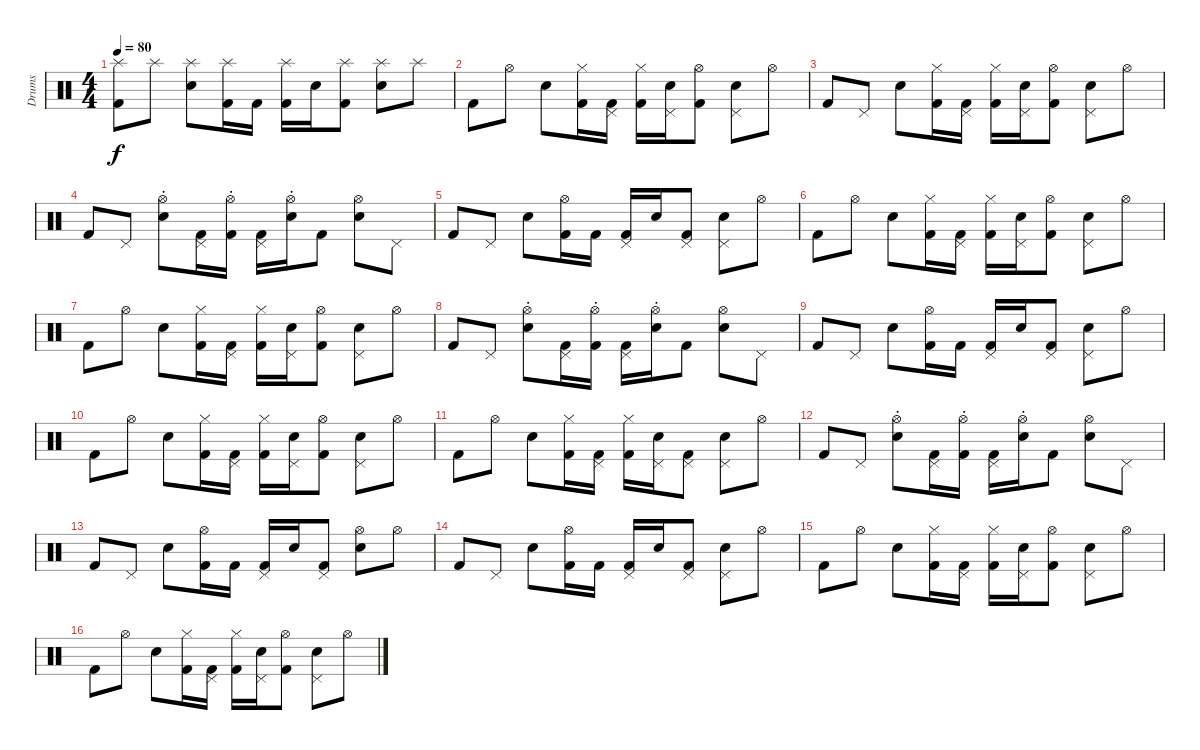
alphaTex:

\track ("Drums" "Drums") {instrument percussion}
\staff {score}
\articulation defaults
\ts (4 4)
\tempo 80
\clef neutral
\ks c
("Splash (hit)" "Kick (hit) 2").8{dy f} "Splash (hit)".8 ("Splash (hit)" "Snare (hit) 2").8 ("Splash (hit)" "Kick (hit) 2").16 "Kick (hit) 2".16 ("Splash (hit)" "Kick (hit) 2").16 "Snare (hit) 2".16 ("Splash (hit)" "Kick (hit) 2").8 ("Splash (hit)" "Snare (hit) 2").8 "Splash (hit)".8 |
"Kick (hit) 2".8 "Hi-Hat (open)".8 "Snare (hit) 2".8 ("Hi-Hat (closed)" "Kick (hit) 2").16 ("Pedal Hi-Hat (hit)" "Kick (hit) 2").16 ("Hi-Hat (closed)" "Kick (hit) 2").16 ("Pedal Hi-Hat (hit)" "Snare (hit) 2").16 ("Hi-Hat (open)" "Kick (hit) 2").8 ("Pedal Hi-Hat (hit)" "Snare (hit) 2").8 "Hi-Hat (open)".8 |
"Kick (hit) 2".8 "Pedal Hi-Hat (hit)".8 "Snare (hit) 2".8 ("Hi-Hat (closed)" "Kick (hit) 2").16 ("Pedal Hi-Hat (hit)" "Kick (hit) 2").16 ("Hi-Hat (closed)" "Kick (hit) 2").16 ("Pedal Hi-Hat (hit)" "Snare (hit) 2").16 ("Hi-Hat (open)" "Kick (hit) 2").8 ("Pedal Hi-Hat (hit)" "Snare (hit) 2").8 "Hi-Hat (open)".8 |
"Kick (hit) 2".8 "Pedal Hi-Hat (hit)".8 ("Hi-Hat (open)"{st} "Snare (hit) 2").8 ("Pedal Hi-Hat (hit)" "Kick (hit) 2").16 ("Hi-Hat (open)"{st} "Kick (hit) 2").16 ("Pedal Hi-Hat (hit)" "Kick (hit) 2").16 ("Hi-Hat (open)"{st} "Snare (hit) 2").16 "Kick (hit) 2".8 ("Hi-Hat (open)" "Snare (hit) 2").8 "Pedal Hi-Hat (hit)".8 |
"Kick (hit) 2".8 "Pedal Hi-Hat (hit)".8 "Snare (hit) 2".8 ("Hi-Hat (open)" "Kick (hit) 2").16 "Kick (hit) 2".16 ("Pedal Hi-Hat (hit)" "Kick (hit) 2").16 "Snare (hit) 2".16 ("Pedal Hi-Hat (hit)" "Kick (hit) 2").8 ("Pedal Hi-Hat (hit)" "Snare (hit) 2").8 "Hi-Hat (open)".8 |
"Kick (hit) 2".8 "Hi-Hat (open)".8 "Snare (hit) 2".8 ("Hi-Hat (closed)" "Kick (hit) 2").16 ("Pedal Hi-Hat (hit)" "Kick (hit) 2").16 ("Hi-Hat (closed)" "Kick (hit) 2").16 ("Pedal Hi-Hat (hit)" "Snare (hit) 2").16 ("Hi-Hat (open)" "Kick (hit) 2").8 ("Pedal Hi-Hat (hit)" "Snare (hit) 2").8 "Hi-Hat (open)".8 |
"Kick (hit) 2".8 "Hi-Hat (open)".8 "Snare (hit) 2".8 ("Hi-Hat (closed)" "Kick (hit) 2").16 ("Pedal Hi-Hat (hit)" "Kick (hit) 2").16 ("Hi-Hat (closed)" "Kick (hit) 2").16 ("Pedal Hi-Hat (hit)" "Snare (hit) 2").16 ("Hi-Hat (open)" "Kick (hit) 2").8 ("Pedal Hi-Hat (hit)" "Snare (hit) 2").8 "Hi-Hat (open)".8 |
"Kick (hit) 2".8 "Pedal Hi-Hat (hit)".8 ("Hi-Hat (open)"{st} "Snare (hit) 2").8 ("Pedal Hi-Hat (hit)" "Kick (hit) 2").16 ("Hi-Hat (open)"{st} "Kick (hit) 2").16 ("Pedal Hi-Hat (hit)" "Kick (hit) 2").16 ("Hi-Hat (open)"{st} "Snare (hit) 2").16 "Kick (hit) 2".8 ("Hi-Hat (open)" "Snare (hit) 2").8 "Pedal Hi-Hat (hit)".8 |
"Kick (hit) 2".8 "Pedal Hi-Hat (hit)".8 "Snare (hit) 2".8 ("Hi-Hat (open)" "Kick (hit) 2").16 "Kick (hit) 2".16 ("Pedal Hi-Hat (hit)" "Kick (hit) 2").16 "Snare (hit) 2".16 ("Pedal Hi-Hat (hit)" "Kick (hit) 2").8 ("Pedal Hi-Hat (hit)" "Snare (hit) 2").8 "Hi-Hat (open)".8 |
"Kick (hit) 2".8 "Hi-Hat (open)".8 "Snare (hit) 2".8 ("Hi-Hat (closed)" "Kick (hit) 2").16 ("Pedal Hi-Hat (hit)" "Kick (hit) 2").16 ("Hi-Hat (closed)" "Kick (hit) 2").16 ("Pedal Hi-Hat (hit)" "Snare (hit) 2").16 ("Hi-Hat (open)" "Kick (hit) 2").8 ("Pedal Hi-Hat (hit)" "Snare (hit) 2").8 "Hi-Hat (open)".8 |
"Kick (hit) 2".8 "Hi-Hat (open)".8 "Snare (hit) 2".8 ("Hi-Hat (closed)" "Kick (hit) 2").16 ("Pedal Hi-Hat (hit)" "Kick (hit) 2").16 ("Hi-Hat (closed)" "Kick (hit) 2").16 ("Pedal Hi-Hat (hit)" "Snare (hit) 2").16 ("Pedal Hi-Hat (hit)" "Kick (hit) 2").8 ("Pedal Hi-Hat (hit)" "Snare (hit) 2").8 "Hi-Hat (open)".8 |
"Kick (hit) 2".8 "Pedal Hi-Hat (hit)".8 ("Hi-Hat (open)"{st} "Snare (hit) 2").8 ("Pedal Hi-Hat (hit)" "Kick (hit) 2").16 ("Hi-Hat (open)"{st} "Kick (hit) 2").16 ("Pedal Hi-Hat (hit)" "Kick (hit) 2").16 ("Hi-Hat (open)"{st} "Snare (hit) 2").16 "Kick (hit) 2".8 ("Hi-Hat (open)" "Snare (hit) 2").8 "Pedal Hi-Hat (hit)".8 |
"Kick (hit) 2".8 "Pedal Hi-Hat (hit)".8 "Snare (hit) 2".8 ("Hi-Hat (open)" "Kick (hit) 2").16 "Kick (hit) 2".16 ("Pedal Hi-Hat (hit)" "Kick (hit) 2").16 "Snare (hit) 2".16 ("Pedal Hi-Hat (hit)" "Kick (hit) 2").8 ("Hi-Hat (open)" "Snare (hit) 2").8 "Hi-Hat (open)".8 |
"Kick (hit) 2".8 "Pedal Hi-Hat (hit)".8 "Snare (hit) 2".8 ("Hi-Hat (open)" "Kick (hit) 2").16 "Kick (hit) 2".16 ("Pedal Hi-Hat (hit)" "Kick (hit) 2").16 "Snare (hit) 2".16 ("Pedal Hi-Hat (hit)" "Kick (hit) 2").8 ("Pedal Hi-Hat (hit)" "Snare (hit) 2").8 "Hi-Hat (open)".8 |
"Kick (hit) 2".8 "Hi-Hat (open)".8 "Snare (hit) 2".8 ("Hi-Hat (closed)" "Kick (hit) 2").16 ("Pedal Hi-Hat (hit)" "Kick (hit) 2").16 ("Hi-Hat (closed)" "Kick (hit) 2").16 ("Pedal Hi-Hat (hit)" "Snare (hit) 2").16 ("Hi-Hat (open)" "Kick (hit) 2").8 ("Pedal Hi-Hat (hit)" "Snare (hit) 2").8 "Hi-Hat (open)".8 |
"Kick (hit) 2".8 "Hi-Hat (open)".8 "Snare (hit) 2".8 ("Hi-Hat (closed)" "Kick (hit) 2").16 ("Pedal Hi-Hat (hit)" "Kick (hit) 2").16 ("Hi-Hat (closed)" "Kick (hit) 2").16 ("Pedal Hi-Hat (hit)" "Snare (hit) 2").16 ("Hi-Hat (open)" "Kick (hit) 2").8 ("Pedal Hi-Hat (hit)" "Snare (hit) 2").8 "Hi-Hat (open)".8
